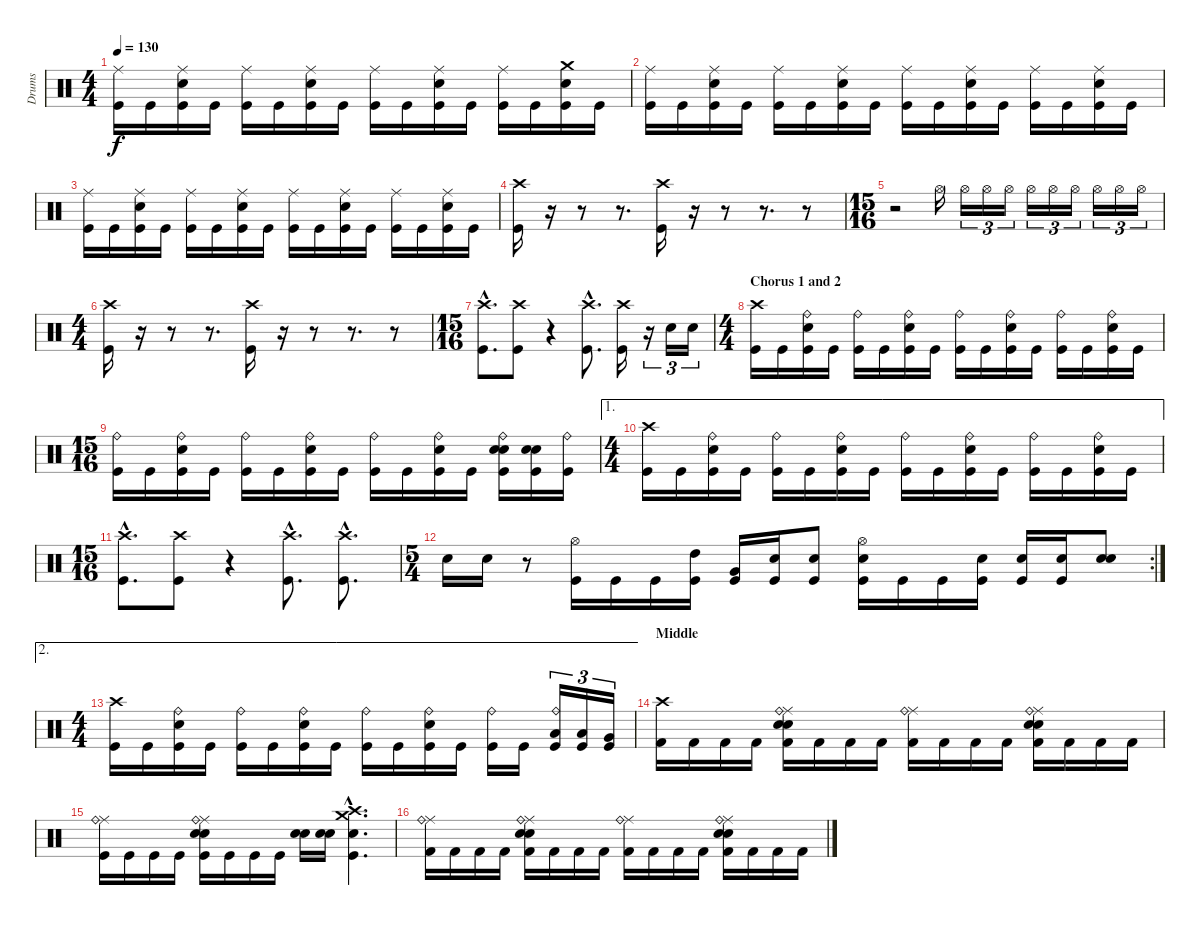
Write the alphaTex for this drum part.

\track ("Drums" "Drums") {instrument percussion}
\staff {score}
\articulation defaults
\ts (4 4)
\tempo 130
\clef neutral
\ks c
("Ride (middle)" "Kick (hit)").16{dy f} "Kick (hit)".16 ("Ride (middle)" "Electric Snare (hit)" "Kick (hit)").16 "Kick (hit)".16 ("Ride (middle)" "Kick (hit)").16 "Kick (hit)".16 ("Ride (middle)" "Electric Snare (hit)" "Kick (hit)").16 "Kick (hit)".16 ("Ride (middle)" "Kick (hit)").16 "Kick (hit)".16 ("Ride (middle)" "Electric Snare (hit)" "Kick (hit)").16 "Kick (hit)".16 ("Ride (middle)" "Kick (hit)").16 "Kick (hit)".16 ("Crash medium (hit)" "Electric Snare (hit)" "Kick (hit)").16 "Kick (hit)".16 |
("Ride (middle)" "Kick (hit)").16 "Kick (hit)".16 ("Ride (middle)" "Electric Snare (hit)" "Kick (hit)").16 "Kick (hit)".16 ("Ride (middle)" "Kick (hit)").16 "Kick (hit)".16 ("Ride (middle)" "Electric Snare (hit)" "Kick (hit)").16 "Kick (hit)".16 ("Ride (middle)" "Kick (hit)").16 "Kick (hit)".16 ("Ride (middle)" "Electric Snare (hit)" "Kick (hit)").16 "Kick (hit)".16 ("Ride (middle)" "Kick (hit)").16 "Kick (hit)".16 ("Ride (middle)" "Electric Snare (hit)" "Kick (hit)").16 "Kick (hit)".16 |
("Ride (middle)" "Kick (hit)").16 "Kick (hit)".16 ("Ride (middle)" "Electric Snare (hit)" "Kick (hit)").16 "Kick (hit)".16 ("Ride (middle)" "Kick (hit)").16 "Kick (hit)".16 ("Ride (middle)" "Electric Snare (hit)" "Kick (hit)").16 "Kick (hit)".16 ("Ride (middle)" "Kick (hit)").16 "Kick (hit)".16 ("Ride (middle)" "Electric Snare (hit)" "Kick (hit)").16 "Kick (hit)".16 ("Ride (middle)" "Kick (hit)").16 "Kick (hit)".16 ("Ride (middle)" "Electric Snare (hit)" "Kick (hit)").16 "Kick (hit)".16 |
("Crash high (hit)" "Kick (hit)").16 r.16 r.8 r.8{d} ("Crash high (hit)" "Kick (hit)").16 r.16 r.8 r.8{d} r.8 |
\ts (15 16)
r.2{volume 0} "Hi-Hat (open)".16{volume 14} "Hi-Hat (open)".16{tu (3 2)} "Hi-Hat (open)".16{tu (3 2)} "Hi-Hat (open)".16{tu (3 2)} "Hi-Hat (open)".16{tu (3 2)} "Hi-Hat (open)".16{tu (3 2)} "Hi-Hat (open)".16{tu (3 2)} "Hi-Hat (open)".16{tu (3 2)} "Hi-Hat (open)".16{tu (3 2)} "Hi-Hat (open)".16{tu (3 2)} |
\ts (4 4)
("Crash high (hit)" "Kick (hit)").16 r.16 r.8 r.8{d} ("Crash high (hit)" "Kick (hit)").16 r.16 r.8 r.8{d} r.8 |
\ts (15 16)
("Crash high (hit)"{hac} "Kick (hit)"{hac}).8{d} ("Crash high (hit)" "Kick (hit)").8 r.4 ("Crash high (hit)"{hac} "Kick (hit)"{hac}).8{d} ("Crash high (hit)" "Kick (hit)").16 r.16{tu (3 2)} "Snare (hit) 2".16{tu (3 2)} "Snare (hit) 2".16{tu (3 2)} |
\ts (4 4)
\section ("" "Chorus 1 and 2")
("Crash high (hit)" "Kick (hit)").16 "Kick (hit)".16 ("Ride (bell)" "Snare (hit) 2" "Kick (hit)").16 "Kick (hit)".16 ("Ride (bell)" "Kick (hit)").16 "Kick (hit)".16 ("Ride (bell)" "Snare (hit) 2" "Kick (hit)").16 "Kick (hit)".16 ("Ride (bell)" "Kick (hit)").16 "Kick (hit)".16 ("Ride (bell)" "Snare (hit) 2" "Kick (hit)").16 "Kick (hit)".16 ("Ride (bell)" "Kick (hit)").16 "Kick (hit)".16 ("Ride (bell)" "Snare (hit) 2" "Kick (hit)").16 "Kick (hit)".16 |
\ts (15 16)
("Ride (bell)" "Kick (hit)").16 "Kick (hit)".16 ("Ride (bell)" "Snare (hit) 2" "Kick (hit)").16 "Kick (hit)".16 ("Ride (bell)" "Kick (hit)").16 "Kick (hit)".16 ("Ride (bell)" "Snare (hit) 2" "Kick (hit)").16 "Kick (hit)".16 ("Ride (bell)" "Kick (hit)").16 "Kick (hit)".16 ("Ride (bell)" "Snare (hit) 2" "Kick (hit)").16 "Kick (hit)".16 ("Ride (bell)" "Snare (hit) 2" "Electric Snare (hit)" "Kick (hit)").16 ("Snare (hit) 2" "Electric Snare (hit)" "Kick (hit)").16 ("Ride (bell)" "Kick (hit)").16 |
\ae 1
\ts (4 4)
("Crash high (hit)" "Kick (hit)").16 "Kick (hit)".16 ("Ride (bell)" "Snare (hit) 2" "Kick (hit)").16 "Kick (hit)".16 ("Ride (bell)" "Kick (hit)").16 "Kick (hit)".16 ("Ride (bell)" "Snare (hit) 2" "Kick (hit)").16 "Kick (hit)".16 ("Ride (bell)" "Kick (hit)").16 "Kick (hit)".16 ("Ride (bell)" "Snare (hit) 2" "Kick (hit)").16 "Kick (hit)".16 ("Ride (bell)" "Kick (hit)").16 "Kick (hit)".16 ("Ride (bell)" "Snare (hit) 2" "Kick (hit)").16 "Kick (hit)".16 |
\ts (15 16)
("Crash high (hit)"{hac} "Kick (hit)"{hac}).8{d} ("Crash high (hit)" "Kick (hit)").8 r.4 ("Crash high (hit)"{hac} "Kick (hit)"{hac}).8{d} ("Crash high (hit)"{hac} "Kick (hit)"{hac}).8{d} |
\rc 2
\ts (5 4)
"Snare (hit) 2".16 "Snare (hit) 2".16 r.8 ("Hi-Hat (open)" "Kick (hit)").16 "Kick (hit)".16 "Kick (hit)".16 ("High Tom (hit)" "Kick (hit)").16 ("Very Low Tom (hit)" "Kick (hit)").16 ("Snare (hit) 2" "Kick (hit)").16 ("Snare (hit) 2" "Kick (hit)").8 ("Hi-Hat (open)" "Electric Snare (hit)" "Kick (hit)").16 "Kick (hit)".16 "Kick (hit)".16 ("Snare (hit) 2" "Kick (hit)").16 ("Snare (hit) 2" "Kick (hit)").16 ("Snare (hit) 2" "Kick (hit)").16 ("Electric Snare (hit)" "Snare (hit) 2").8 |
\ae 2
\ts (4 4)
("Crash high (hit)" "Kick (hit)").16 "Kick (hit)".16 ("Ride (bell)" "Snare (hit) 2" "Kick (hit)").16 "Kick (hit)".16 ("Ride (bell)" "Kick (hit)").16 "Kick (hit)".16 ("Ride (bell)" "Snare (hit) 2" "Kick (hit)").16 "Kick (hit)".16 ("Ride (bell)" "Kick (hit)").16 "Kick (hit)".16 ("Ride (bell)" "Snare (hit) 2" "Kick (hit)").16 "Kick (hit)".16 ("Ride (bell)" "Kick (hit)").16 "Kick (hit)".16 ("Ride (bell)" "Low Tom (hit)" "Kick (hit)").16{tu (3 2)} ("Low Tom (hit)" "Kick (hit)").16{tu (3 2)} ("Very Low Tom (hit)" "Kick (hit)").16{tu (3 2)} |
\section ("" "Middle")
("Crash high (hit)" "Kick (hit) 2").16 "Kick (hit) 2".16 "Kick (hit) 2".16 "Kick (hit) 2".16 ("Ride (middle)" "Ride (bell)" "Electric Snare (hit)" "Snare (hit) 2" "Kick (hit) 2").16 "Kick (hit) 2".16 "Kick (hit) 2".16 "Kick (hit) 2".16 ("Ride (middle)" "Ride (bell)" "Kick (hit) 2").16 "Kick (hit) 2".16 "Kick (hit) 2".16 "Kick (hit) 2".16 ("Ride (middle)" "Ride (bell)" "Electric Snare (hit)" "Snare (hit) 2" "Kick (hit) 2").16 "Kick (hit) 2".16 "Kick (hit) 2".16 "Kick (hit) 2".16 |
("Ride (middle)" "Ride (bell)" "Kick (hit)").16 "Kick (hit)".16 "Kick (hit)".16 "Kick (hit)".16 ("Ride (middle)" "Ride (bell)" "Electric Snare (hit)" "Snare (hit) 2" "Kick (hit)").16 "Kick (hit)".16 "Kick (hit)".16 "Kick (hit)".16 ("Electric Snare (hit)" "Snare (hit) 2").16 ("Electric Snare (hit)" "Snare (hit) 2").16 ("Crash medium (hit)"{hac} "Crash high (hit)"{hac} "Electric Snare (hit)"{hac} "Kick (hit)"{hac}).4{d} |
("Ride (middle)" "Ride (bell)" "Kick (hit) 2").16 "Kick (hit) 2".16 "Kick (hit) 2".16 "Kick (hit) 2".16 ("Ride (middle)" "Ride (bell)" "Electric Snare (hit)" "Snare (hit) 2" "Kick (hit) 2").16 "Kick (hit) 2".16 "Kick (hit) 2".16 "Kick (hit) 2".16 ("Ride (middle)" "Ride (bell)" "Kick (hit) 2").16 "Kick (hit) 2".16 "Kick (hit) 2".16 "Kick (hit) 2".16 ("Ride (middle)" "Ride (bell)" "Electric Snare (hit)" "Snare (hit) 2" "Kick (hit) 2").16 "Kick (hit) 2".16 "Kick (hit) 2".16 "Kick (hit) 2".16
